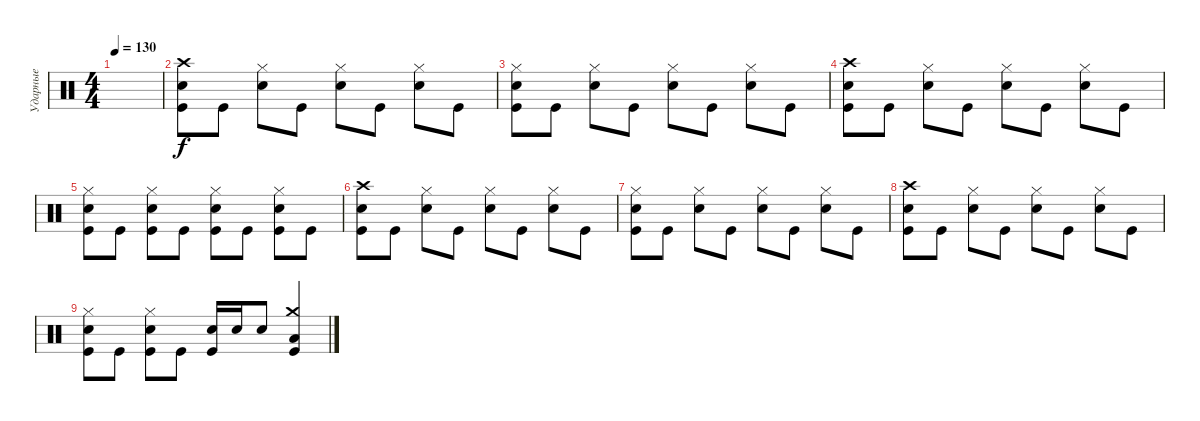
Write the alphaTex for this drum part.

\track ("Ударные" "Ударные") {instrument percussion}
\staff {score}
\articulation defaults
\ts (4 4)
\tempo 130
\clef neutral
\ks c
|
("Crash high (hit)" "Electric Snare (hit)" "Kick (hit)").8 "Kick (hit)".8 ("Hi-Hat (closed)" "Electric Snare (hit)").8 "Kick (hit)".8 ("Hi-Hat (closed)" "Electric Snare (hit)").8 "Kick (hit)".8 ("Hi-Hat (closed)" "Electric Snare (hit)").8 "Kick (hit)".8 |
("Hi-Hat (closed)" "Electric Snare (hit)" "Kick (hit)").8 "Kick (hit)".8 ("Hi-Hat (closed)" "Electric Snare (hit)").8 "Kick (hit)".8 ("Hi-Hat (closed)" "Electric Snare (hit)").8 "Kick (hit)".8 ("Hi-Hat (closed)" "Electric Snare (hit)").8 "Kick (hit)".8 |
("Crash high (hit)" "Electric Snare (hit)" "Kick (hit)").8 "Kick (hit)".8 ("Hi-Hat (closed)" "Electric Snare (hit)").8 "Kick (hit)".8 ("Hi-Hat (closed)" "Electric Snare (hit)").8 "Kick (hit)".8 ("Hi-Hat (closed)" "Electric Snare (hit)").8 "Kick (hit)".8 |
("Hi-Hat (closed)" "Electric Snare (hit)" "Kick (hit)").8 "Kick (hit)".8 ("Hi-Hat (closed)" "Electric Snare (hit)" "Kick (hit)").8 "Kick (hit)".8 ("Hi-Hat (closed)" "Electric Snare (hit)" "Kick (hit)").8 "Kick (hit)".8 ("Hi-Hat (closed)" "Electric Snare (hit)" "Kick (hit)").8 "Kick (hit)".8 |
("Crash high (hit)" "Electric Snare (hit)" "Kick (hit)").8 "Kick (hit)".8 ("Hi-Hat (closed)" "Electric Snare (hit)").8 "Kick (hit)".8 ("Hi-Hat (closed)" "Electric Snare (hit)").8 "Kick (hit)".8 ("Hi-Hat (closed)" "Electric Snare (hit)").8 "Kick (hit)".8 |
("Hi-Hat (closed)" "Electric Snare (hit)" "Kick (hit)").8 "Kick (hit)".8 ("Hi-Hat (closed)" "Electric Snare (hit)").8 "Kick (hit)".8 ("Hi-Hat (closed)" "Electric Snare (hit)").8 "Kick (hit)".8 ("Hi-Hat (closed)" "Electric Snare (hit)").8 "Kick (hit)".8 |
("Crash high (hit)" "Electric Snare (hit)" "Kick (hit)").8 "Kick (hit)".8 ("Hi-Hat (closed)" "Electric Snare (hit)").8 "Kick (hit)".8 ("Hi-Hat (closed)" "Electric Snare (hit)").8 "Kick (hit)".8 ("Hi-Hat (closed)" "Electric Snare (hit)").8 "Kick (hit)".8 |
("Hi-Hat (closed)" "Electric Snare (hit)" "Kick (hit)").8 "Kick (hit)".8 ("Hi-Hat (closed)" "Electric Snare (hit)" "Kick (hit)").8 "Kick (hit)".8 ("Electric Snare (hit)" "Kick (hit)").16 "Electric Snare (hit)".16 "Electric Snare (hit)".8 ("Crash medium (hit)" "Low Tom (hit)" "Kick (hit)").4
